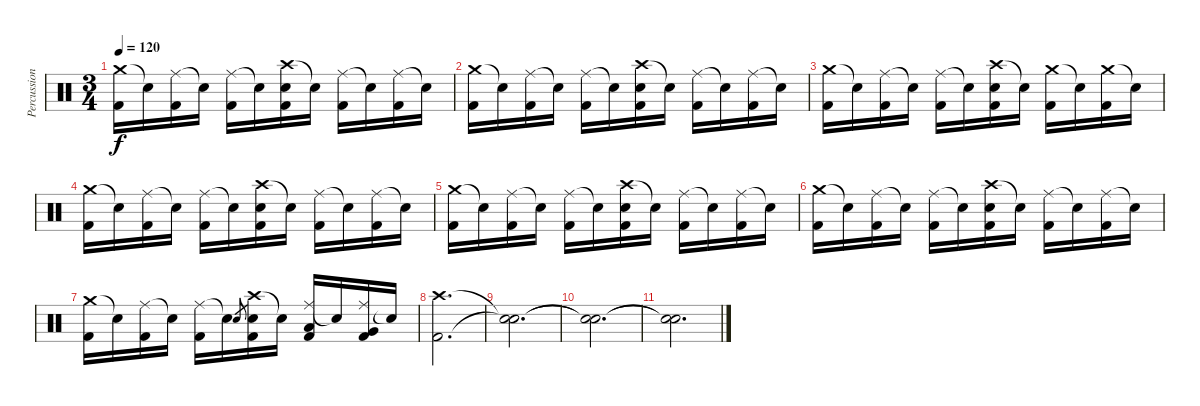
\track ("Percussions" "Percussion") {instrument percussion}
\staff {score}
\articulation defaults
\ts (3 4)
\tempo 120
\clef neutral
\ks c
("Crash medium (hit)" "Kick (hit) 2").16{dy f} "Snare (hit)"{t}.16 ("Ride (middle)" "Kick (hit) 2").16 "Snare (hit)"{t}.16 ("Ride (middle)" "Kick (hit) 2").16 "Snare (hit)"{t}.16 ("Crash high (hit)" "Electric Snare (hit)" "Kick (hit) 2").16 "Snare (hit)"{t}.16 ("Ride (middle)" "Kick (hit) 2").16 "Snare (hit)"{t}.16 ("Ride (middle)" "Kick (hit) 2").16 "Snare (hit)"{t}.16 |
("Crash medium (hit)" "Kick (hit) 2").16 "Snare (hit)"{t}.16 ("Ride (middle)" "Kick (hit) 2").16 "Snare (hit)"{t}.16 ("Ride (middle)" "Kick (hit) 2").16 "Snare (hit)"{t}.16 ("Crash high (hit)" "Electric Snare (hit)" "Kick (hit) 2").16 "Snare (hit)"{t}.16 ("Ride (middle)" "Kick (hit) 2").16 "Snare (hit)"{t}.16 ("Ride (middle)" "Kick (hit) 2").16 "Snare (hit)"{t}.16 |
("Crash medium (hit)" "Kick (hit) 2").16 "Snare (hit)"{t}.16 ("Ride (middle)" "Kick (hit) 2").16 "Snare (hit)"{t}.16 ("Ride (middle)" "Kick (hit) 2").16 "Snare (hit)"{t}.16 ("Crash high (hit)" "Electric Snare (hit)" "Kick (hit) 2").16 "Snare (hit)"{t}.16 ("Crash medium (hit)" "Kick (hit) 2").16 "Snare (hit)"{t}.16 ("Crash medium (hit)" "Kick (hit) 2").16 "Snare (hit)"{t}.16 |
("Crash medium (hit)" "Kick (hit) 2").16 "Snare (hit)"{t}.16 ("Ride (middle)" "Kick (hit) 2").16 "Snare (hit)"{t}.16 ("Ride (middle)" "Kick (hit) 2").16 "Snare (hit)"{t}.16 ("Crash high (hit)" "Electric Snare (hit)" "Kick (hit) 2").16 "Snare (hit)"{t}.16 ("Ride (middle)" "Kick (hit) 2").16 "Snare (hit)"{t}.16 ("Ride (middle)" "Kick (hit) 2").16 "Snare (hit)"{t}.16 |
("Crash medium (hit)" "Kick (hit) 2").16 "Snare (hit)"{t}.16 ("Ride (middle)" "Kick (hit) 2").16 "Snare (hit)"{t}.16 ("Ride (middle)" "Kick (hit) 2").16 "Snare (hit)"{t}.16 ("Crash high (hit)" "Electric Snare (hit)" "Kick (hit) 2").16 "Snare (hit)"{t}.16 ("Ride (middle)" "Kick (hit) 2").16 "Snare (hit)"{t}.16 ("Ride (middle)" "Kick (hit) 2").16 "Snare (hit)"{t}.16 |
("Crash medium (hit)" "Kick (hit) 2").16 "Snare (hit)"{t}.16 ("Ride (middle)" "Kick (hit) 2").16 "Snare (hit)"{t}.16 ("Ride (middle)" "Kick (hit) 2").16 "Snare (hit)"{t}.16 ("Crash high (hit)" "Electric Snare (hit)" "Kick (hit) 2").16 "Snare (hit)"{t}.16 ("Ride (middle)" "Kick (hit) 2").16 "Snare (hit)"{t}.16 ("Ride (middle)" "Kick (hit) 2").16 "Snare (hit)"{t}.16 |
("Crash medium (hit)" "Kick (hit) 2").16 "Snare (hit)"{t}.16 ("Ride (middle)" "Kick (hit) 2").16 "Snare (hit)"{t}.16 ("Ride (middle)" "Kick (hit) 2").16 "Snare (hit)"{t}.16 "Electric Snare (hit)".8{gr} ("Crash high (hit)" "Electric Snare (hit)" "Kick (hit) 2").16 "Snare (hit)"{t}.16 ("Ride (middle)" "Low Tom (hit)" "Kick (hit) 2").16 "Snare (hit)"{t}.16 ("Ride (middle)" "Very Low Tom (hit)" "Kick (hit) 2").16 "Snare (hit)"{t}.16 |
("Crash high (hit)" "Kick (hit) 2").2{d} |
("Snare (hit)"{t} "Snare (hit)"{t}).2{d} |
("Snare (hit)"{t} "Snare (hit)"{t}).2{d} |
("Snare (hit)"{t} "Snare (hit)"{t}).2{d}
